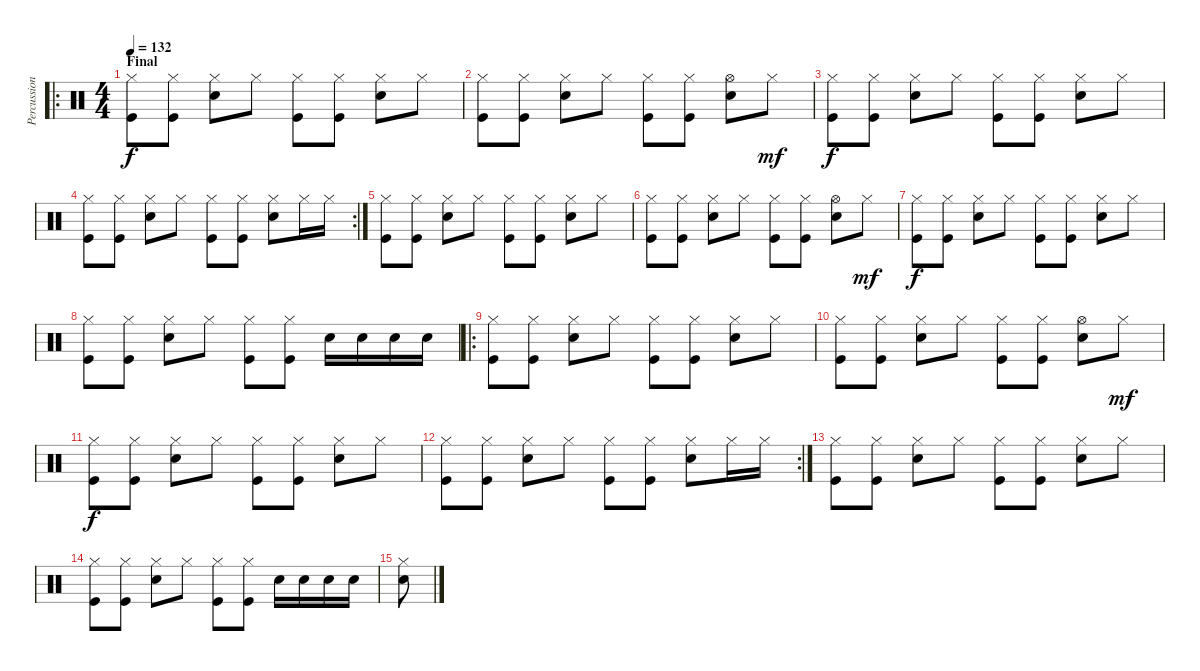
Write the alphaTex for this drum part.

\track ("Percussions" "Percussion") {instrument percussion}
\staff {score}
\articulation defaults
\ro
\ts (4 4)
\section ("" "Final")
\tempo 132
\clef neutral
\ks c
("Hi-Hat (closed)" "Kick (hit)").8{dy f} ("Hi-Hat (closed)" "Kick (hit)").8 ("Hi-Hat (closed)" "Electric Snare (hit)").8 "Hi-Hat (closed)".8 ("Hi-Hat (closed)" "Kick (hit)").8 ("Hi-Hat (closed)" "Kick (hit)").8 ("Hi-Hat (closed)" "Electric Snare (hit)").8 "Hi-Hat (closed)".8 |
("Hi-Hat (closed)" "Kick (hit)").8 ("Hi-Hat (closed)" "Kick (hit)").8 ("Hi-Hat (closed)" "Electric Snare (hit)").8 "Hi-Hat (closed)".8 ("Hi-Hat (closed)" "Kick (hit)").8 ("Hi-Hat (closed)" "Kick (hit)").8 ("Hi-Hat (open)" "Electric Snare (hit)").8 "Hi-Hat (closed)".8{dy mf} |
("Hi-Hat (closed)" "Kick (hit)").8{dy f} ("Hi-Hat (closed)" "Kick (hit)").8 ("Hi-Hat (closed)" "Electric Snare (hit)").8 "Hi-Hat (closed)".8 ("Hi-Hat (closed)" "Kick (hit)").8 ("Hi-Hat (closed)" "Kick (hit)").8 ("Hi-Hat (closed)" "Electric Snare (hit)").8 "Hi-Hat (closed)".8 |
\rc 2
("Hi-Hat (closed)" "Kick (hit)").8 ("Hi-Hat (closed)" "Kick (hit)").8 ("Hi-Hat (closed)" "Electric Snare (hit)").8 "Hi-Hat (closed)".8 ("Hi-Hat (closed)" "Kick (hit)").8 ("Hi-Hat (closed)" "Kick (hit)").8 ("Hi-Hat (closed)" "Electric Snare (hit)").8 "Hi-Hat (closed)".16 "Hi-Hat (closed)".16 |
("Hi-Hat (closed)" "Kick (hit)").8 ("Hi-Hat (closed)" "Kick (hit)").8 ("Hi-Hat (closed)" "Electric Snare (hit)").8 "Hi-Hat (closed)".8 ("Hi-Hat (closed)" "Kick (hit)").8 ("Hi-Hat (closed)" "Kick (hit)").8 ("Hi-Hat (closed)" "Electric Snare (hit)").8 "Hi-Hat (closed)".8 |
("Hi-Hat (closed)" "Kick (hit)").8 ("Hi-Hat (closed)" "Kick (hit)").8 ("Hi-Hat (closed)" "Electric Snare (hit)").8 "Hi-Hat (closed)".8 ("Hi-Hat (closed)" "Kick (hit)").8 ("Hi-Hat (closed)" "Kick (hit)").8 ("Hi-Hat (open)" "Electric Snare (hit)").8 "Hi-Hat (closed)".8{dy mf} |
("Hi-Hat (closed)" "Kick (hit)").8{dy f} ("Hi-Hat (closed)" "Kick (hit)").8 ("Hi-Hat (closed)" "Electric Snare (hit)").8 "Hi-Hat (closed)".8 ("Hi-Hat (closed)" "Kick (hit)").8 ("Hi-Hat (closed)" "Kick (hit)").8 ("Hi-Hat (closed)" "Electric Snare (hit)").8 "Hi-Hat (closed)".8 |
("Hi-Hat (closed)" "Kick (hit)").8 ("Hi-Hat (closed)" "Kick (hit)").8 ("Hi-Hat (closed)" "Electric Snare (hit)").8 "Hi-Hat (closed)".8 ("Hi-Hat (closed)" "Kick (hit)").8 ("Hi-Hat (closed)" "Kick (hit)").8 "Electric Snare (hit)".16 "Electric Snare (hit)".16 "Electric Snare (hit)".16 "Electric Snare (hit)".16 |
\ro
("Hi-Hat (closed)" "Kick (hit)").8 ("Hi-Hat (closed)" "Kick (hit)").8 ("Hi-Hat (closed)" "Electric Snare (hit)").8 "Hi-Hat (closed)".8 ("Hi-Hat (closed)" "Kick (hit)").8 ("Hi-Hat (closed)" "Kick (hit)").8 ("Hi-Hat (closed)" "Electric Snare (hit)").8 "Hi-Hat (closed)".8 |
("Hi-Hat (closed)" "Kick (hit)").8 ("Hi-Hat (closed)" "Kick (hit)").8 ("Hi-Hat (closed)" "Electric Snare (hit)").8 "Hi-Hat (closed)".8 ("Hi-Hat (closed)" "Kick (hit)").8 ("Hi-Hat (closed)" "Kick (hit)").8 ("Hi-Hat (open)" "Electric Snare (hit)").8 "Hi-Hat (closed)".8{dy mf} |
("Hi-Hat (closed)" "Kick (hit)").8{dy f} ("Hi-Hat (closed)" "Kick (hit)").8 ("Hi-Hat (closed)" "Electric Snare (hit)").8 "Hi-Hat (closed)".8 ("Hi-Hat (closed)" "Kick (hit)").8 ("Hi-Hat (closed)" "Kick (hit)").8 ("Hi-Hat (closed)" "Electric Snare (hit)").8 "Hi-Hat (closed)".8 |
\rc 2
("Hi-Hat (closed)" "Kick (hit)").8 ("Hi-Hat (closed)" "Kick (hit)").8 ("Hi-Hat (closed)" "Electric Snare (hit)").8 "Hi-Hat (closed)".8 ("Hi-Hat (closed)" "Kick (hit)").8 ("Hi-Hat (closed)" "Kick (hit)").8 ("Hi-Hat (closed)" "Electric Snare (hit)").8 "Hi-Hat (closed)".16 "Hi-Hat (closed)".16 |
("Hi-Hat (closed)" "Kick (hit)").8 ("Hi-Hat (closed)" "Kick (hit)").8 ("Hi-Hat (closed)" "Electric Snare (hit)").8 "Hi-Hat (closed)".8 ("Hi-Hat (closed)" "Kick (hit)").8 ("Hi-Hat (closed)" "Kick (hit)").8 ("Hi-Hat (closed)" "Electric Snare (hit)").8 "Hi-Hat (closed)".8 |
("Hi-Hat (closed)" "Kick (hit)").8 ("Hi-Hat (closed)" "Kick (hit)").8 ("Hi-Hat (closed)" "Electric Snare (hit)").8 "Hi-Hat (closed)".8 ("Hi-Hat (closed)" "Kick (hit)").8 ("Hi-Hat (closed)" "Kick (hit)").8 "Electric Snare (hit)".16 "Electric Snare (hit)".16 "Electric Snare (hit)".16 "Electric Snare (hit)".16 |
("Hi-Hat (closed)" "Electric Snare (hit)").8
